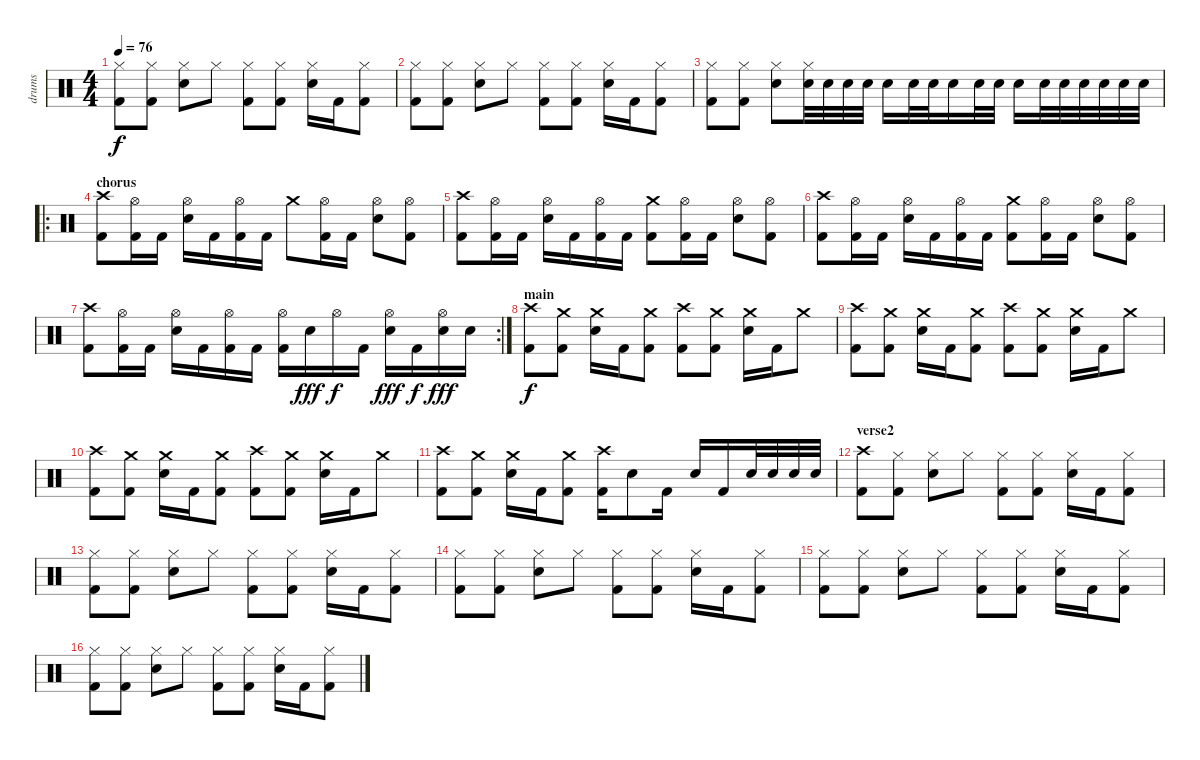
\track ("drums" "drums") {instrument percussion}
\staff {score}
\articulation defaults
\ts (4 4)
\tempo 76
\clef neutral
\ks c
("Hi-Hat (closed)" "Kick (hit) 2").8{dy f} ("Hi-Hat (closed)" "Kick (hit) 2").8 ("Hi-Hat (closed)" "Electric Snare (hit)").8 "Hi-Hat (closed)".8 ("Hi-Hat (closed)" "Kick (hit) 2").8 ("Hi-Hat (closed)" "Kick (hit) 2").8 ("Hi-Hat (closed)" "Electric Snare (hit)").16 "Kick (hit) 2".16 ("Hi-Hat (closed)" "Kick (hit) 2").8 |
("Hi-Hat (closed)" "Kick (hit) 2").8 ("Hi-Hat (closed)" "Kick (hit) 2").8 ("Hi-Hat (closed)" "Electric Snare (hit)").8 "Hi-Hat (closed)".8 ("Hi-Hat (closed)" "Kick (hit) 2").8 ("Hi-Hat (closed)" "Kick (hit) 2").8 ("Hi-Hat (closed)" "Electric Snare (hit)").16 "Kick (hit) 2".16 ("Hi-Hat (closed)" "Kick (hit) 2").8 |
("Hi-Hat (closed)" "Kick (hit) 2").8 ("Hi-Hat (closed)" "Kick (hit) 2").8 ("Hi-Hat (closed)" "Electric Snare (hit)").8 ("Hi-Hat (closed)" "Electric Snare (hit)").32 "Electric Snare (hit)".32 "Electric Snare (hit)".32 "Electric Snare (hit)".32 "Electric Snare (hit)".16 "Electric Snare (hit)".32 "Electric Snare (hit)".32 "Electric Snare (hit)".16 "Electric Snare (hit)".32 "Electric Snare (hit)".32 "Electric Snare (hit)".16 "Electric Snare (hit)".32 "Electric Snare (hit)".32 "Electric Snare (hit)".32 "Electric Snare (hit)".32 "Electric Snare (hit)".32 "Electric Snare (hit)".32 |
\ro
\section ("" "chorus")
("Crash high (hit)" "Kick (hit) 2").8 ("Hi-Hat (open)" "Kick (hit) 2").16 "Kick (hit) 2".16 ("Hi-Hat (open)" "Electric Snare (hit)").16 "Kick (hit) 2".16 ("Hi-Hat (open)" "Kick (hit) 2").16 "Kick (hit) 2".16 "Crash medium (hit)".8 ("Hi-Hat (open)" "Kick (hit) 2").16 "Kick (hit) 2".16 ("Hi-Hat (open)" "Electric Snare (hit)").8 ("Hi-Hat (open)" "Kick (hit) 2").8 |
("Crash high (hit)" "Kick (hit) 2").8 ("Hi-Hat (open)" "Kick (hit) 2").16 "Kick (hit) 2".16 ("Hi-Hat (open)" "Electric Snare (hit)").16 "Kick (hit) 2".16 ("Hi-Hat (open)" "Kick (hit) 2").16 "Kick (hit) 2".16 ("Crash medium (hit)" "Kick (hit) 2").8 ("Hi-Hat (open)" "Kick (hit) 2").16 "Kick (hit) 2".16 ("Hi-Hat (open)" "Electric Snare (hit)").8 ("Hi-Hat (open)" "Kick (hit) 2").8 |
("Crash high (hit)" "Kick (hit) 2").8 ("Hi-Hat (open)" "Kick (hit) 2").16 "Kick (hit) 2".16 ("Hi-Hat (open)" "Electric Snare (hit)").16 "Kick (hit) 2".16 ("Hi-Hat (open)" "Kick (hit) 2").16 "Kick (hit) 2".16 ("Crash medium (hit)" "Kick (hit) 2").8 ("Hi-Hat (open)" "Kick (hit) 2").16 "Kick (hit) 2".16 ("Hi-Hat (open)" "Electric Snare (hit)").8 ("Hi-Hat (open)" "Kick (hit) 2").8 |
\rc 2
("Crash high (hit)" "Kick (hit) 2").8 ("Hi-Hat (open)" "Kick (hit) 2").16 "Kick (hit) 2".16 ("Hi-Hat (open)" "Electric Snare (hit)").16 "Kick (hit) 2".16 ("Hi-Hat (open)" "Kick (hit) 2").16 "Kick (hit) 2".16 ("Hi-Hat (open)" "Kick (hit) 2").16 "Electric Snare (hit)".16{dy fff} "Hi-Hat (open)".16{dy f} "Kick (hit) 2".16 ("Hi-Hat (open)" "Electric Snare (hit)").16{dy fff} "Kick (hit) 2".16{dy f} ("Hi-Hat (open)" "Electric Snare (hit)").16{dy fff} "Electric Snare (hit)".16 |
\section ("" "main")
("Crash high (hit)" "Kick (hit) 2").8{dy f} ("Crash medium (hit)" "Kick (hit) 2").8 ("Crash medium (hit)" "Electric Snare (hit)").16 "Kick (hit) 2".16 ("Crash medium (hit)" "Kick (hit) 2").8 ("Crash high (hit)" "Kick (hit) 2").8 ("Crash medium (hit)" "Kick (hit) 2").8 ("Crash medium (hit)" "Electric Snare (hit)").16 "Kick (hit) 2".16 "Crash medium (hit)".8 |
("Crash high (hit)" "Kick (hit) 2").8 ("Crash medium (hit)" "Kick (hit) 2").8 ("Crash medium (hit)" "Electric Snare (hit)").16 "Kick (hit) 2".16 ("Crash medium (hit)" "Kick (hit) 2").8 ("Crash high (hit)" "Kick (hit) 2").8 ("Crash medium (hit)" "Kick (hit) 2").8 ("Crash medium (hit)" "Electric Snare (hit)").16 "Kick (hit) 2".16 "Crash medium (hit)".8 |
("Crash high (hit)" "Kick (hit) 2").8 ("Crash medium (hit)" "Kick (hit) 2").8 ("Crash medium (hit)" "Electric Snare (hit)").16 "Kick (hit) 2".16 ("Crash medium (hit)" "Kick (hit) 2").8 ("Crash high (hit)" "Kick (hit) 2").8 ("Crash medium (hit)" "Kick (hit) 2").8 ("Crash medium (hit)" "Electric Snare (hit)").16 "Kick (hit) 2".16 "Crash medium (hit)".8 |
("Crash high (hit)" "Kick (hit) 2").8 ("Crash medium (hit)" "Kick (hit) 2").8 ("Crash medium (hit)" "Electric Snare (hit)").16 "Kick (hit) 2".16 ("Crash medium (hit)" "Kick (hit) 2").8 ("Crash high (hit)" "Kick (hit) 2").16 "Electric Snare (hit)".8 "Kick (hit) 2".16 "Electric Snare (hit)".16 "Kick (hit) 2".16 "Electric Snare (hit)".32 "Electric Snare (hit)".32 "Electric Snare (hit)".32 "Electric Snare (hit)".32 |
\section ("" "verse2")
("Crash high (hit)" "Kick (hit) 2").8 ("Hi-Hat (closed)" "Kick (hit) 2").8 ("Hi-Hat (closed)" "Electric Snare (hit)").8 "Hi-Hat (closed)".8 ("Hi-Hat (closed)" "Kick (hit) 2").8 ("Hi-Hat (closed)" "Kick (hit) 2").8 ("Hi-Hat (closed)" "Electric Snare (hit)").16 "Kick (hit) 2".16 ("Hi-Hat (closed)" "Kick (hit) 2").8 |
("Hi-Hat (closed)" "Kick (hit) 2").8 ("Hi-Hat (closed)" "Kick (hit) 2").8 ("Hi-Hat (closed)" "Electric Snare (hit)").8 "Hi-Hat (closed)".8 ("Hi-Hat (closed)" "Kick (hit) 2").8 ("Hi-Hat (closed)" "Kick (hit) 2").8 ("Hi-Hat (closed)" "Electric Snare (hit)").16 "Kick (hit) 2".16 ("Hi-Hat (closed)" "Kick (hit) 2").8 |
("Hi-Hat (closed)" "Kick (hit) 2").8 ("Hi-Hat (closed)" "Kick (hit) 2").8 ("Hi-Hat (closed)" "Electric Snare (hit)").8 "Hi-Hat (closed)".8 ("Hi-Hat (closed)" "Kick (hit) 2").8 ("Hi-Hat (closed)" "Kick (hit) 2").8 ("Hi-Hat (closed)" "Electric Snare (hit)").16 "Kick (hit) 2".16 ("Hi-Hat (closed)" "Kick (hit) 2").8 |
("Hi-Hat (closed)" "Kick (hit) 2").8 ("Hi-Hat (closed)" "Kick (hit) 2").8 ("Hi-Hat (closed)" "Electric Snare (hit)").8 "Hi-Hat (closed)".8 ("Hi-Hat (closed)" "Kick (hit) 2").8 ("Hi-Hat (closed)" "Kick (hit) 2").8 ("Hi-Hat (closed)" "Electric Snare (hit)").16 "Kick (hit) 2".16 ("Hi-Hat (closed)" "Kick (hit) 2").8 |
("Hi-Hat (closed)" "Kick (hit) 2").8 ("Hi-Hat (closed)" "Kick (hit) 2").8 ("Hi-Hat (closed)" "Electric Snare (hit)").8 "Hi-Hat (closed)".8 ("Hi-Hat (closed)" "Kick (hit) 2").8 ("Hi-Hat (closed)" "Kick (hit) 2").8 ("Hi-Hat (closed)" "Electric Snare (hit)").16 "Kick (hit) 2".16 ("Hi-Hat (closed)" "Kick (hit) 2").8
